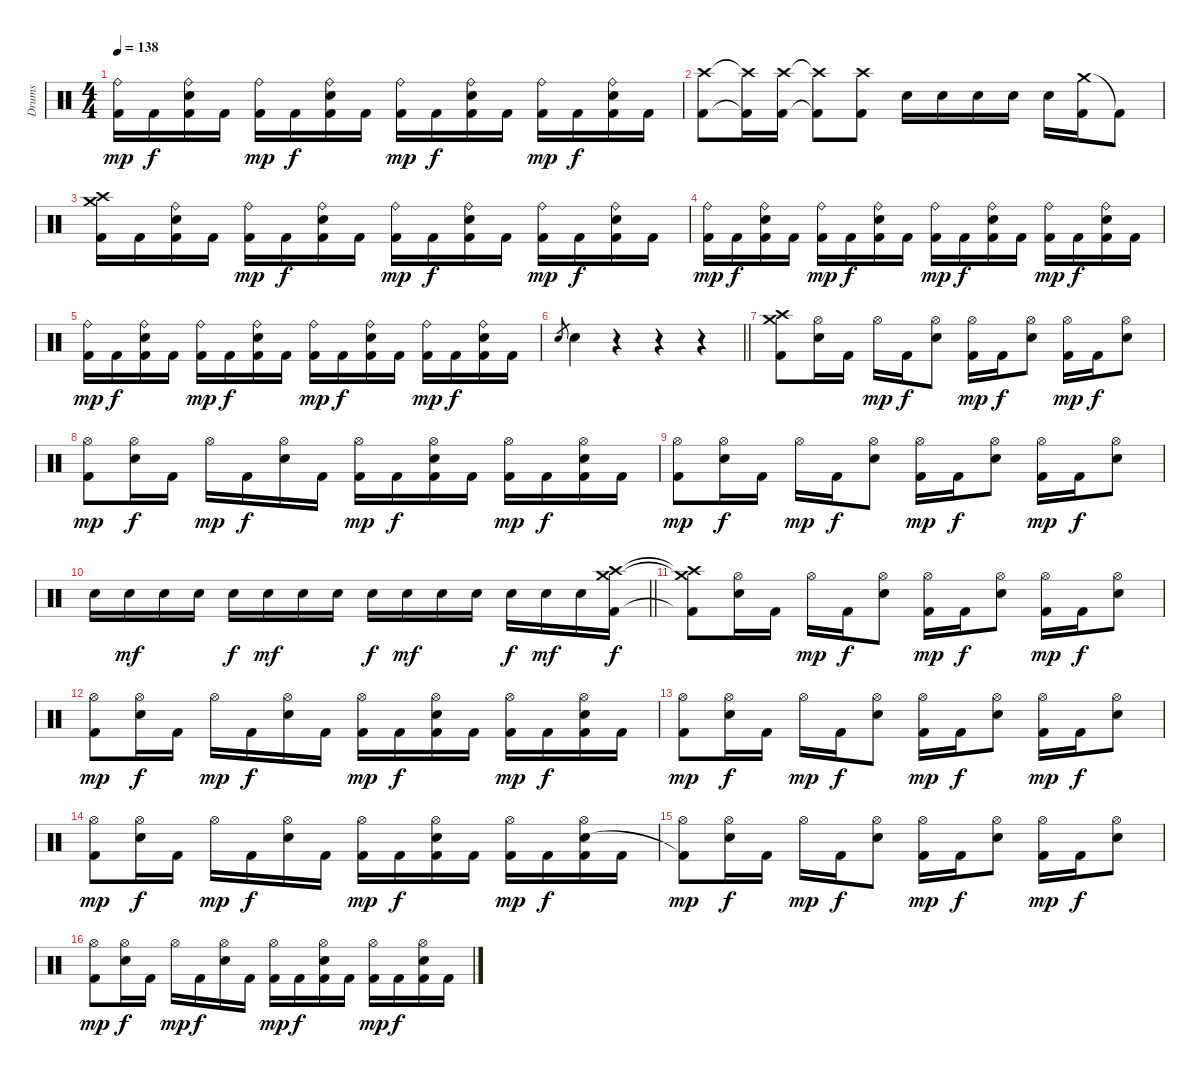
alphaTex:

\track ("Drums" "Drums") {instrument percussion}
\staff {score}
\articulation defaults
\ts (4 4)
\tempo 138
\clef neutral
\ks c
("Ride (bell)" "Kick (hit) 2").16{dy mp} "Kick (hit) 2".16{dy f} ("Ride (bell)" "Electric Snare (hit)" "Kick (hit) 2").16 "Kick (hit) 2".16 ("Ride (bell)" "Kick (hit) 2").16{dy mp} "Kick (hit) 2".16{dy f} ("Ride (bell)" "Electric Snare (hit)" "Kick (hit) 2").16 "Kick (hit) 2".16 ("Ride (bell)" "Kick (hit) 2").16{dy mp} "Kick (hit) 2".16{dy f} ("Ride (bell)" "Electric Snare (hit)" "Kick (hit) 2").16 "Kick (hit) 2".16 ("Ride (bell)" "Kick (hit) 2").16{dy mp} "Kick (hit) 2".16{dy f} ("Ride (bell)" "Electric Snare (hit)" "Kick (hit) 2").16 "Kick (hit) 2".16 |
("Crash high (hit)" "Kick (hit) 2").8 ("Crash high (hit)"{t} "Kick (hit) 2"{t}).16 ("Crash high (hit)" "Kick (hit) 2").16 ("Crash high (hit)"{t} "Kick (hit) 2"{t}).8 ("Crash high (hit)" "Kick (hit) 2").8 "Electric Snare (hit)".16 "Electric Snare (hit)".16 "Electric Snare (hit)".16 "Electric Snare (hit)".16 "Electric Snare (hit)".16 ("Crash medium (hit)" "Kick (hit) 2").16 "Kick (hit) 2"{t}.8 |
("Crash high (hit)" "Crash medium (hit)" "Kick (hit) 2").16 "Kick (hit) 2".16 ("Ride (bell)" "Electric Snare (hit)" "Kick (hit) 2").16 "Kick (hit) 2".16 ("Ride (bell)" "Kick (hit) 2").16{dy mp} "Kick (hit) 2".16{dy f} ("Ride (bell)" "Electric Snare (hit)" "Kick (hit) 2").16 "Kick (hit) 2".16 ("Ride (bell)" "Kick (hit) 2").16{dy mp} "Kick (hit) 2".16{dy f} ("Ride (bell)" "Electric Snare (hit)" "Kick (hit) 2").16 "Kick (hit) 2".16 ("Ride (bell)" "Kick (hit) 2").16{dy mp} "Kick (hit) 2".16{dy f} ("Ride (bell)" "Electric Snare (hit)" "Kick (hit) 2").16 "Kick (hit) 2".16 |
("Ride (bell)" "Kick (hit) 2").16{dy mp} "Kick (hit) 2".16{dy f} ("Ride (bell)" "Electric Snare (hit)" "Kick (hit) 2").16 "Kick (hit) 2".16 ("Ride (bell)" "Kick (hit) 2").16{dy mp} "Kick (hit) 2".16{dy f} ("Ride (bell)" "Electric Snare (hit)" "Kick (hit) 2").16 "Kick (hit) 2".16 ("Ride (bell)" "Kick (hit) 2").16{dy mp} "Kick (hit) 2".16{dy f} ("Ride (bell)" "Electric Snare (hit)" "Kick (hit) 2").16 "Kick (hit) 2".16 ("Ride (bell)" "Kick (hit) 2").16{dy mp} "Kick (hit) 2".16{dy f} ("Ride (bell)" "Electric Snare (hit)" "Kick (hit) 2").16 "Kick (hit) 2".16 |
("Ride (bell)" "Kick (hit) 2").16{dy mp} "Kick (hit) 2".16{dy f} ("Ride (bell)" "Electric Snare (hit)" "Kick (hit) 2").16 "Kick (hit) 2".16 ("Ride (bell)" "Kick (hit) 2").16{dy mp} "Kick (hit) 2".16{dy f} ("Ride (bell)" "Electric Snare (hit)" "Kick (hit) 2").16 "Kick (hit) 2".16 ("Ride (bell)" "Kick (hit) 2").16{dy mp} "Kick (hit) 2".16{dy f} ("Ride (bell)" "Electric Snare (hit)" "Kick (hit) 2").16 "Kick (hit) 2".16 ("Ride (bell)" "Kick (hit) 2").16{dy mp} "Kick (hit) 2".16{dy f} ("Ride (bell)" "Electric Snare (hit)" "Kick (hit) 2").16 "Kick (hit) 2".16 |
\barLineRight lightlight "Electric Snare (hit)".8{gr} "Electric Snare (hit)".4
r.4 r.4 r.4 |
("Crash high (hit)" "Crash medium (hit)" "Kick (hit) 2").8 ("Hi-Hat (open)" "Electric Snare (hit)").16 "Kick (hit) 2".16 "Hi-Hat (open)".16{dy mp} "Kick (hit) 2".16{dy f} ("Hi-Hat (open)" "Electric Snare (hit)").8 ("Hi-Hat (open)" "Kick (hit) 2").16{dy mp} "Kick (hit) 2".16{dy f} ("Hi-Hat (open)" "Electric Snare (hit)").8 ("Hi-Hat (open)" "Kick (hit) 2").16{dy mp} "Kick (hit) 2".16{dy f} ("Hi-Hat (open)" "Electric Snare (hit)").8 |
("Hi-Hat (open)" "Kick (hit) 2").8{dy mp} ("Hi-Hat (open)" "Electric Snare (hit)").16{dy f} "Kick (hit) 2".16 "Hi-Hat (open)".16{dy mp} "Kick (hit) 2".16{dy f} ("Hi-Hat (open)" "Electric Snare (hit)").16 "Kick (hit) 2".16 ("Hi-Hat (open)" "Kick (hit) 2").16{dy mp} "Kick (hit) 2".16{dy f} ("Hi-Hat (open)" "Electric Snare (hit)" "Kick (hit) 2").16 "Kick (hit) 2".16 ("Hi-Hat (open)" "Kick (hit) 2").16{dy mp} "Kick (hit) 2".16{dy f} ("Hi-Hat (open)" "Electric Snare (hit)" "Kick (hit) 2").16 "Kick (hit) 2".16 |
("Hi-Hat (open)" "Kick (hit) 2").8{dy mp} ("Hi-Hat (open)" "Electric Snare (hit)").16{dy f} "Kick (hit) 2".16 "Hi-Hat (open)".16{dy mp} "Kick (hit) 2".16{dy f} ("Hi-Hat (open)" "Electric Snare (hit)").8 ("Hi-Hat (open)" "Kick (hit) 2").16{dy mp} "Kick (hit) 2".16{dy f} ("Hi-Hat (open)" "Electric Snare (hit)").8 ("Hi-Hat (open)" "Kick (hit) 2").16{dy mp} "Kick (hit) 2".16{dy f} ("Hi-Hat (open)" "Electric Snare (hit)").8 |
\barLineRight lightlight "Electric Snare (hit)".16 "Electric Snare (hit)".16{dy mf} "Electric Snare (hit)".16 "Electric Snare (hit)".16 "Electric Snare (hit)".16{dy f} "Electric Snare (hit)".16{dy mf} "Electric Snare (hit)".16 "Electric Snare (hit)".16 "Electric Snare (hit)".16{dy f} "Electric Snare (hit)".16{dy mf} "Electric Snare (hit)".16 "Electric Snare (hit)".16 "Electric Snare (hit)".16{dy f} "Electric Snare (hit)".16{dy mf} "Electric Snare (hit)".16
("Crash high (hit)" "Crash medium (hit)" "Kick (hit) 2").16{dy f} |
("Crash high (hit)"{t} "Crash medium (hit)"{t} "Kick (hit) 2"{t}).8 ("Hi-Hat (open)" "Electric Snare (hit)").16 "Kick (hit) 2".16 "Hi-Hat (open)".16{dy mp} "Kick (hit) 2".16{dy f} ("Hi-Hat (open)" "Electric Snare (hit)").8 ("Hi-Hat (open)" "Kick (hit) 2").16{dy mp} "Kick (hit) 2".16{dy f} ("Hi-Hat (open)" "Electric Snare (hit)").8 ("Hi-Hat (open)" "Kick (hit) 2").16{dy mp} "Kick (hit) 2".16{dy f} ("Hi-Hat (open)" "Electric Snare (hit)").8 |
("Hi-Hat (open)" "Kick (hit) 2").8{dy mp} ("Hi-Hat (open)" "Electric Snare (hit)").16{dy f} "Kick (hit) 2".16 "Hi-Hat (open)".16{dy mp} "Kick (hit) 2".16{dy f} ("Hi-Hat (open)" "Electric Snare (hit)").16 "Kick (hit) 2".16 ("Hi-Hat (open)" "Kick (hit) 2").16{dy mp} "Kick (hit) 2".16{dy f} ("Hi-Hat (open)" "Electric Snare (hit)" "Kick (hit) 2").16 "Kick (hit) 2".16 ("Hi-Hat (open)" "Kick (hit) 2").16{dy mp} "Kick (hit) 2".16{dy f} ("Hi-Hat (open)" "Electric Snare (hit)" "Kick (hit) 2").16 "Kick (hit) 2".16 |
("Hi-Hat (open)" "Kick (hit) 2").8{dy mp} ("Hi-Hat (open)" "Electric Snare (hit)").16{dy f} "Kick (hit) 2".16 "Hi-Hat (open)".16{dy mp} "Kick (hit) 2".16{dy f} ("Hi-Hat (open)" "Electric Snare (hit)").8 ("Hi-Hat (open)" "Kick (hit) 2").16{dy mp} "Kick (hit) 2".16{dy f} ("Hi-Hat (open)" "Electric Snare (hit)").8 ("Hi-Hat (open)" "Kick (hit) 2").16{dy mp} "Kick (hit) 2".16{dy f} ("Hi-Hat (open)" "Electric Snare (hit)").8 |
("Hi-Hat (open)" "Kick (hit) 2").8{dy mp} ("Hi-Hat (open)" "Electric Snare (hit)").16{dy f} "Kick (hit) 2".16 "Hi-Hat (open)".16{dy mp} "Kick (hit) 2".16{dy f} ("Hi-Hat (open)" "Electric Snare (hit)").16 "Kick (hit) 2".16 ("Hi-Hat (open)" "Kick (hit) 2").16{dy mp} "Kick (hit) 2".16{dy f} ("Hi-Hat (open)" "Electric Snare (hit)" "Kick (hit) 2").16 "Kick (hit) 2".16 ("Hi-Hat (open)" "Kick (hit) 2").16{dy mp} "Kick (hit) 2".16{dy f} ("Hi-Hat (open)" "Electric Snare (hit)" "Kick (hit) 2").16 "Kick (hit) 2".16 |
("Hi-Hat (open)" "Kick (hit) 2"{t}).8{dy mp} ("Hi-Hat (open)" "Electric Snare (hit)").16{dy f} "Kick (hit) 2".16 "Hi-Hat (open)".16{dy mp} "Kick (hit) 2".16{dy f} ("Hi-Hat (open)" "Electric Snare (hit)").8 ("Hi-Hat (open)" "Kick (hit) 2").16{dy mp} "Kick (hit) 2".16{dy f} ("Hi-Hat (open)" "Electric Snare (hit)").8 ("Hi-Hat (open)" "Kick (hit) 2").16{dy mp} "Kick (hit) 2".16{dy f} ("Hi-Hat (open)" "Electric Snare (hit)").8 |
("Hi-Hat (open)" "Kick (hit) 2").8{dy mp} ("Hi-Hat (open)" "Electric Snare (hit)").16{dy f} "Kick (hit) 2".16 "Hi-Hat (open)".16{dy mp} "Kick (hit) 2".16{dy f} ("Hi-Hat (open)" "Electric Snare (hit)").16 "Kick (hit) 2".16 ("Hi-Hat (open)" "Kick (hit) 2").16{dy mp} "Kick (hit) 2".16{dy f} ("Hi-Hat (open)" "Electric Snare (hit)" "Kick (hit) 2").16 "Kick (hit) 2".16 ("Hi-Hat (open)" "Kick (hit) 2").16{dy mp} "Kick (hit) 2".16{dy f} ("Hi-Hat (open)" "Electric Snare (hit)" "Kick (hit) 2").16 "Kick (hit) 2".16
